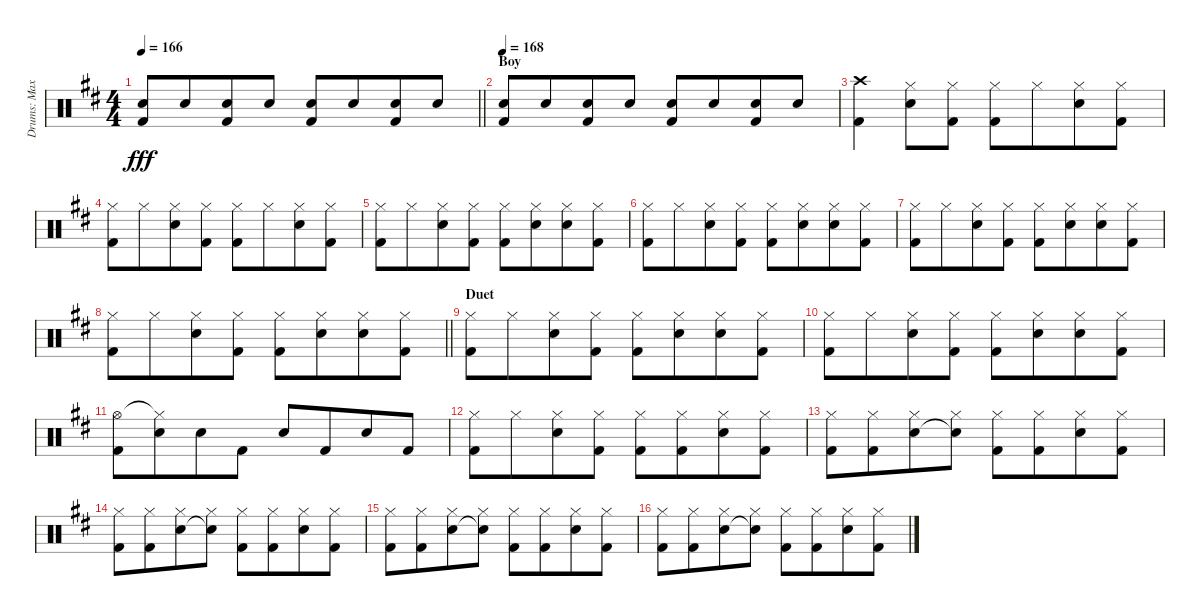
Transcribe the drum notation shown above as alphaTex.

\track ("Drums: Max" "Drums: Max") {instrument percussion}
\staff {score}
\articulation defaults
\ts (4 4)
\tempo 166
\clef neutral
\barLineRight lightlight
\ks d
("Electric Snare (hit)" "Kick (hit) 2").8{dy fff} "Electric Snare (hit)".8{beam merge} ("Electric Snare (hit)" "Kick (hit) 2").8 "Electric Snare (hit)".8 ("Electric Snare (hit)" "Kick (hit) 2").8 "Electric Snare (hit)".8{beam merge} ("Electric Snare (hit)" "Kick (hit) 2").8 "Electric Snare (hit)".8 |
\section ("" "Boy")
\tempo 168
("Electric Snare (hit)" "Kick (hit) 2").8 "Electric Snare (hit)".8{beam merge} ("Electric Snare (hit)" "Kick (hit) 2").8 "Electric Snare (hit)".8 ("Electric Snare (hit)" "Kick (hit) 2").8 "Electric Snare (hit)".8{beam merge} ("Electric Snare (hit)" "Kick (hit) 2").8 "Electric Snare (hit)".8 |
("Crash high (hit)" "Kick (hit) 2").4{beam merge} ("Hi-Hat (closed)" "Electric Snare (hit)").8 ("Hi-Hat (closed)" "Kick (hit) 2").8 ("Hi-Hat (closed)" "Kick (hit) 2").8 "Hi-Hat (closed)".8{beam merge} ("Hi-Hat (closed)" "Electric Snare (hit)").8 ("Hi-Hat (closed)" "Kick (hit) 2").8 |
("Hi-Hat (closed)" "Kick (hit) 2").8 "Hi-Hat (closed)".8{beam merge} ("Hi-Hat (closed)" "Electric Snare (hit)").8 ("Hi-Hat (closed)" "Kick (hit) 2").8 ("Hi-Hat (closed)" "Kick (hit) 2").8 "Hi-Hat (closed)".8{beam merge} ("Hi-Hat (closed)" "Electric Snare (hit)").8 ("Hi-Hat (closed)" "Kick (hit) 2").8 |
("Hi-Hat (closed)" "Kick (hit) 2").8 "Hi-Hat (closed)".8{beam merge} ("Hi-Hat (closed)" "Electric Snare (hit)").8 ("Hi-Hat (closed)" "Kick (hit) 2").8 ("Hi-Hat (closed)" "Kick (hit) 2").8 ("Hi-Hat (closed)" "Electric Snare (hit)").8{beam merge} ("Hi-Hat (closed)" "Electric Snare (hit)").8 ("Hi-Hat (closed)" "Kick (hit) 2").8 |
("Hi-Hat (closed)" "Kick (hit) 2").8 "Hi-Hat (closed)".8{beam merge} ("Hi-Hat (closed)" "Electric Snare (hit)").8 ("Hi-Hat (closed)" "Kick (hit) 2").8 ("Hi-Hat (closed)" "Kick (hit) 2").8 ("Hi-Hat (closed)" "Electric Snare (hit)").8{beam merge} ("Hi-Hat (closed)" "Electric Snare (hit)").8 ("Hi-Hat (closed)" "Kick (hit) 2").8 |
("Hi-Hat (closed)" "Kick (hit) 2").8 "Hi-Hat (closed)".8{beam merge} ("Hi-Hat (closed)" "Electric Snare (hit)").8 ("Hi-Hat (closed)" "Kick (hit) 2").8 ("Hi-Hat (closed)" "Kick (hit) 2").8 ("Hi-Hat (closed)" "Electric Snare (hit)").8{beam merge} ("Hi-Hat (closed)" "Electric Snare (hit)").8 ("Hi-Hat (closed)" "Kick (hit) 2").8 |
\barLineRight lightlight
("Hi-Hat (closed)" "Kick (hit) 2").8 "Hi-Hat (closed)".8{beam merge} ("Hi-Hat (closed)" "Electric Snare (hit)").8 ("Hi-Hat (closed)" "Kick (hit) 2").8 ("Hi-Hat (closed)" "Kick (hit) 2").8 ("Hi-Hat (closed)" "Electric Snare (hit)").8{beam merge} ("Hi-Hat (closed)" "Electric Snare (hit)").8 ("Hi-Hat (closed)" "Kick (hit) 2").8 |
\section ("" "Duet")
("Hi-Hat (closed)" "Kick (hit) 2").8 "Hi-Hat (closed)".8{beam merge} ("Hi-Hat (closed)" "Electric Snare (hit)").8 ("Hi-Hat (closed)" "Kick (hit) 2").8 ("Hi-Hat (closed)" "Kick (hit) 2").8 ("Hi-Hat (closed)" "Electric Snare (hit)").8{beam merge} ("Hi-Hat (closed)" "Electric Snare (hit)").8 ("Hi-Hat (closed)" "Kick (hit) 2").8 |
("Hi-Hat (closed)" "Kick (hit) 2").8 "Hi-Hat (closed)".8{beam merge} ("Hi-Hat (closed)" "Electric Snare (hit)").8 ("Hi-Hat (closed)" "Kick (hit) 2").8 ("Hi-Hat (closed)" "Kick (hit) 2").8 ("Hi-Hat (closed)" "Electric Snare (hit)").8{beam merge} ("Hi-Hat (closed)" "Electric Snare (hit)").8 ("Hi-Hat (closed)" "Kick (hit) 2").8 |
("Hi-Hat (open)" "Kick (hit) 2").8{beam merge} ("Hi-Hat (closed)"{t} "Electric Snare (hit)").8{beam merge} "Electric Snare (hit)".8 "Kick (hit) 2".8 "Electric Snare (hit)".8 "Kick (hit) 2".8{beam merge} "Electric Snare (hit)".8 "Kick (hit) 2".8 |
("Hi-Hat (closed)" "Kick (hit) 2").8 "Hi-Hat (closed)".8{beam merge} ("Hi-Hat (closed)" "Electric Snare (hit)").8 ("Hi-Hat (closed)" "Kick (hit) 2").8 ("Hi-Hat (closed)" "Kick (hit) 2").8 ("Hi-Hat (closed)" "Kick (hit) 2").8{beam merge} ("Hi-Hat (closed)" "Electric Snare (hit)").8 ("Hi-Hat (closed)" "Kick (hit) 2").8 |
("Hi-Hat (closed)" "Kick (hit) 2").8 ("Hi-Hat (closed)" "Kick (hit) 2").8{beam merge} ("Hi-Hat (closed)" "Electric Snare (hit)").8 ("Hi-Hat (closed)" "Snare (hit)"{t}).8 ("Hi-Hat (closed)" "Kick (hit) 2").8 ("Hi-Hat (closed)" "Kick (hit) 2").8{beam merge} ("Hi-Hat (closed)" "Electric Snare (hit)").8 ("Hi-Hat (closed)" "Kick (hit) 2").8 |
("Hi-Hat (closed)" "Kick (hit) 2").8 ("Hi-Hat (closed)" "Kick (hit) 2").8{beam merge} ("Hi-Hat (closed)" "Electric Snare (hit)").8 ("Hi-Hat (closed)" "Snare (hit)"{t}).8 ("Hi-Hat (closed)" "Kick (hit) 2").8 ("Hi-Hat (closed)" "Kick (hit) 2").8{beam merge} ("Hi-Hat (closed)" "Electric Snare (hit)").8 ("Hi-Hat (closed)" "Kick (hit) 2").8 |
("Hi-Hat (closed)" "Kick (hit) 2").8 ("Hi-Hat (closed)" "Kick (hit) 2").8{beam merge} ("Hi-Hat (closed)" "Electric Snare (hit)").8 ("Hi-Hat (closed)" "Snare (hit)"{t}).8 ("Hi-Hat (closed)" "Kick (hit) 2").8 ("Hi-Hat (closed)" "Kick (hit) 2").8{beam merge} ("Hi-Hat (closed)" "Electric Snare (hit)").8 ("Hi-Hat (closed)" "Kick (hit) 2").8 |
("Hi-Hat (closed)" "Kick (hit) 2").8 ("Hi-Hat (closed)" "Kick (hit) 2").8{beam merge} ("Hi-Hat (closed)" "Electric Snare (hit)").8 ("Hi-Hat (closed)" "Snare (hit)"{t}).8 ("Hi-Hat (closed)" "Kick (hit) 2").8 ("Hi-Hat (closed)" "Kick (hit) 2").8{beam merge} ("Hi-Hat (closed)" "Electric Snare (hit)").8 ("Hi-Hat (closed)" "Kick (hit) 2").8
